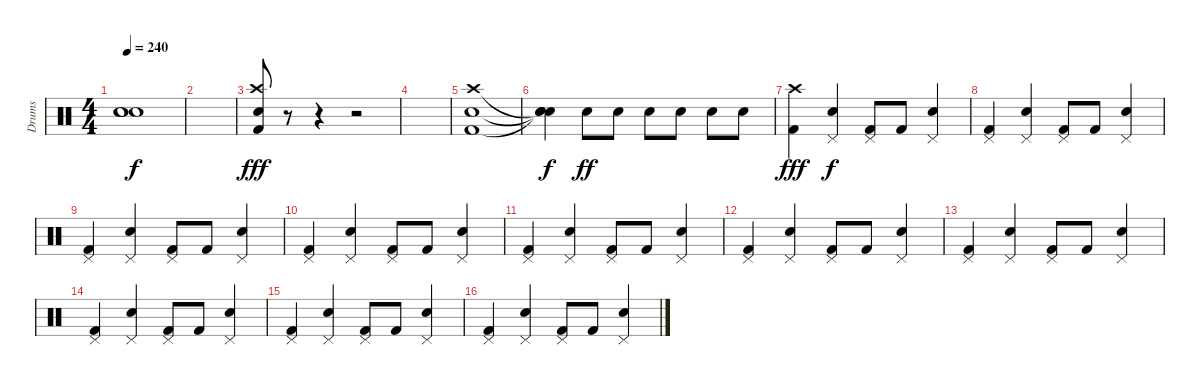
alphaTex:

\track ("Drums" "Drums") {instrument percussion}
\staff {score}
\articulation defaults
\ts (4 4)
\tempo 240
\clef neutral
\ks c
("Snare (hit)"{t} "Snare (hit)"{t} "Snare (hit)"{t}).1{dy f} |
|
("Crash high (hit)" "Snare (hit) 2" "Kick (hit) 2").8{dy fff} r.8 r.4 r.2 |
|
("Crash high (hit)" "Snare (hit) 2" "Kick (hit) 2").1 |
("Snare (hit)"{t} "Snare (hit)"{t} "Snare (hit)"{t}).4{dy f} "Electric Snare (hit)".8{dy ff} "Electric Snare (hit)".8 "Electric Snare (hit)".8 "Electric Snare (hit)".8 "Electric Snare (hit)".8 "Electric Snare (hit)".8 |
("Crash high (hit)" "Kick (hit) 2").4{dy fff} ("Pedal Hi-Hat (hit)" "Snare (hit) 2").4{dy f} ("Pedal Hi-Hat (hit)" "Kick (hit) 2").8 "Kick (hit) 2".8 ("Pedal Hi-Hat (hit)" "Snare (hit) 2").4 |
("Pedal Hi-Hat (hit)" "Kick (hit) 2").4 ("Pedal Hi-Hat (hit)" "Snare (hit) 2").4 ("Pedal Hi-Hat (hit)" "Kick (hit) 2").8 "Kick (hit) 2".8 ("Pedal Hi-Hat (hit)" "Snare (hit) 2").4 |
("Pedal Hi-Hat (hit)" "Kick (hit) 2").4 ("Pedal Hi-Hat (hit)" "Snare (hit) 2").4 ("Pedal Hi-Hat (hit)" "Kick (hit) 2").8 "Kick (hit) 2".8 ("Pedal Hi-Hat (hit)" "Snare (hit) 2").4 |
("Pedal Hi-Hat (hit)" "Kick (hit) 2").4 ("Pedal Hi-Hat (hit)" "Snare (hit) 2").4 ("Pedal Hi-Hat (hit)" "Kick (hit) 2").8 "Kick (hit) 2".8 ("Pedal Hi-Hat (hit)" "Snare (hit) 2").4 |
("Pedal Hi-Hat (hit)" "Kick (hit) 2").4 ("Pedal Hi-Hat (hit)" "Snare (hit) 2").4 ("Pedal Hi-Hat (hit)" "Kick (hit) 2").8 "Kick (hit) 2".8 ("Pedal Hi-Hat (hit)" "Snare (hit) 2").4 |
("Pedal Hi-Hat (hit)" "Kick (hit) 2").4 ("Pedal Hi-Hat (hit)" "Snare (hit) 2").4 ("Pedal Hi-Hat (hit)" "Kick (hit) 2").8 "Kick (hit) 2".8 ("Pedal Hi-Hat (hit)" "Snare (hit) 2").4 |
("Pedal Hi-Hat (hit)" "Kick (hit) 2").4 ("Pedal Hi-Hat (hit)" "Snare (hit) 2").4 ("Pedal Hi-Hat (hit)" "Kick (hit) 2").8 "Kick (hit) 2".8 ("Pedal Hi-Hat (hit)" "Snare (hit) 2").4 |
("Pedal Hi-Hat (hit)" "Kick (hit) 2").4 ("Pedal Hi-Hat (hit)" "Snare (hit) 2").4 ("Pedal Hi-Hat (hit)" "Kick (hit) 2").8 "Kick (hit) 2".8 ("Pedal Hi-Hat (hit)" "Snare (hit) 2").4 |
("Pedal Hi-Hat (hit)" "Kick (hit) 2").4 ("Pedal Hi-Hat (hit)" "Snare (hit) 2").4 ("Pedal Hi-Hat (hit)" "Kick (hit) 2").8 "Kick (hit) 2".8 ("Pedal Hi-Hat (hit)" "Snare (hit) 2").4 |
("Pedal Hi-Hat (hit)" "Kick (hit) 2").4 ("Pedal Hi-Hat (hit)" "Snare (hit) 2").4 ("Pedal Hi-Hat (hit)" "Kick (hit) 2").8 "Kick (hit) 2".8 ("Pedal Hi-Hat (hit)" "Snare (hit) 2").4
